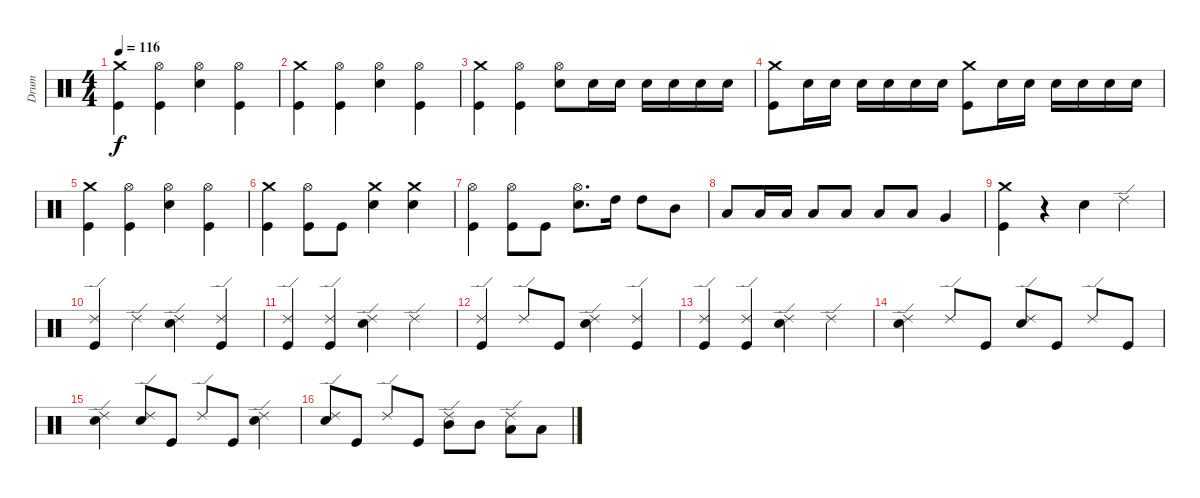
\track ("Drum" "Drum") {instrument percussion}
\staff {score}
\articulation defaults
\ts (4 4)
\tempo 116
\clef neutral
\ks c
("Kick (hit)" "Crash medium (hit)").4{dy f} ("Kick (hit)" "Hi-Hat (open)").4 ("Electric Snare (hit)" "Hi-Hat (open)").4 ("Kick (hit)" "Hi-Hat (open)").4 |
("Kick (hit)" "Crash medium (hit)").4 ("Kick (hit)" "Hi-Hat (open)").4 ("Electric Snare (hit)" "Hi-Hat (open)").4 ("Kick (hit)" "Hi-Hat (open)").4 |
("Kick (hit)" "Crash medium (hit)").4 ("Kick (hit)" "Hi-Hat (open)").4 ("Electric Snare (hit)" "Hi-Hat (open)").8 "Electric Snare (hit)".16 "Electric Snare (hit)".16 "Electric Snare (hit)".16 "Electric Snare (hit)".16 "Electric Snare (hit)".16 "Electric Snare (hit)".16 |
("Kick (hit)" "Crash medium (hit)").8 "Electric Snare (hit)".16 "Electric Snare (hit)".16 "Electric Snare (hit)".16 "Electric Snare (hit)".16 "Electric Snare (hit)".16 "Electric Snare (hit)".16 ("Kick (hit)" "Crash medium (hit)").8 "Electric Snare (hit)".16 "Electric Snare (hit)".16 "Electric Snare (hit)".16 "Electric Snare (hit)".16 "Electric Snare (hit)".16 "Electric Snare (hit)".16 |
("Kick (hit)" "Crash medium (hit)").4 ("Kick (hit)" "Hi-Hat (open)").4 ("Electric Snare (hit)" "Hi-Hat (open)").4 ("Kick (hit)" "Hi-Hat (open)").4 |
("Kick (hit)" "Crash medium (hit)").4 ("Kick (hit)" "Hi-Hat (open)").8 "Kick (hit)".8 ("Electric Snare (hit)" "Crash medium (hit)").4 ("Electric Snare (hit)" "Crash medium (hit)").4 |
("Kick (hit)" "Hi-Hat (open)").4 ("Kick (hit)" "Hi-Hat (open)").8 "Kick (hit)".8 ("Electric Snare (hit)" "Hi-Hat (open)").8{d} "High Tom (hit)".16 "High Tom (hit)".8 "Mid Tom (hit)".8 |
"Low Tom (hit)".8 "Low Tom (hit)".16 "Low Tom (hit)".16 "Low Tom (hit)".8 "Low Tom (hit)".8 "Low Tom (hit)".8 "Low Tom (hit)".8 "Very Low Tom (hit)".4 |
("Kick (hit)" "Crash medium (hit)").4 r.4 "Electric Snare (hit)".4 "Ride (edge) 2".4 |
("Kick (hit)" "Ride (edge) 2").4 "Ride (edge) 2".4 ("Electric Snare (hit)" "Ride (edge) 2").4 ("Kick (hit)" "Ride (edge) 2").4 |
("Kick (hit)" "Ride (edge) 2").4 ("Kick (hit)" "Ride (edge) 2").4 ("Electric Snare (hit)" "Ride (edge) 2").4 "Ride (edge) 2".4 |
("Kick (hit)" "Ride (edge) 2").4 "Ride (edge) 2".8 "Kick (hit)".8 ("Electric Snare (hit)" "Ride (edge) 2").4 ("Kick (hit)" "Ride (edge) 2").4 |
("Kick (hit)" "Ride (edge) 2").4 ("Kick (hit)" "Ride (edge) 2").4 ("Electric Snare (hit)" "Ride (edge) 2").4 "Ride (edge) 2".4 |
("Electric Snare (hit)" "Ride (edge) 2").4 "Ride (edge) 2".8 "Kick (hit)".8 ("Electric Snare (hit)" "Ride (edge) 2").8 "Kick (hit)".8 "Ride (edge) 2".8 "Kick (hit)".8 |
("Electric Snare (hit)" "Ride (edge) 2").4 ("Electric Snare (hit)" "Ride (edge) 2").8 "Kick (hit)".8 "Ride (edge) 2".8 "Kick (hit)".8 ("Electric Snare (hit)" "Ride (edge) 2").4 |
("Electric Snare (hit)" "Ride (edge) 2").8 "Kick (hit)".8 "Ride (edge) 2".8 "Kick (hit)".8 ("Mid Tom (hit)" "Ride (edge) 2").8 "Mid Tom (hit)".8 ("Low Tom (hit)" "Ride (edge) 2").8 "Low Tom (hit)".8
